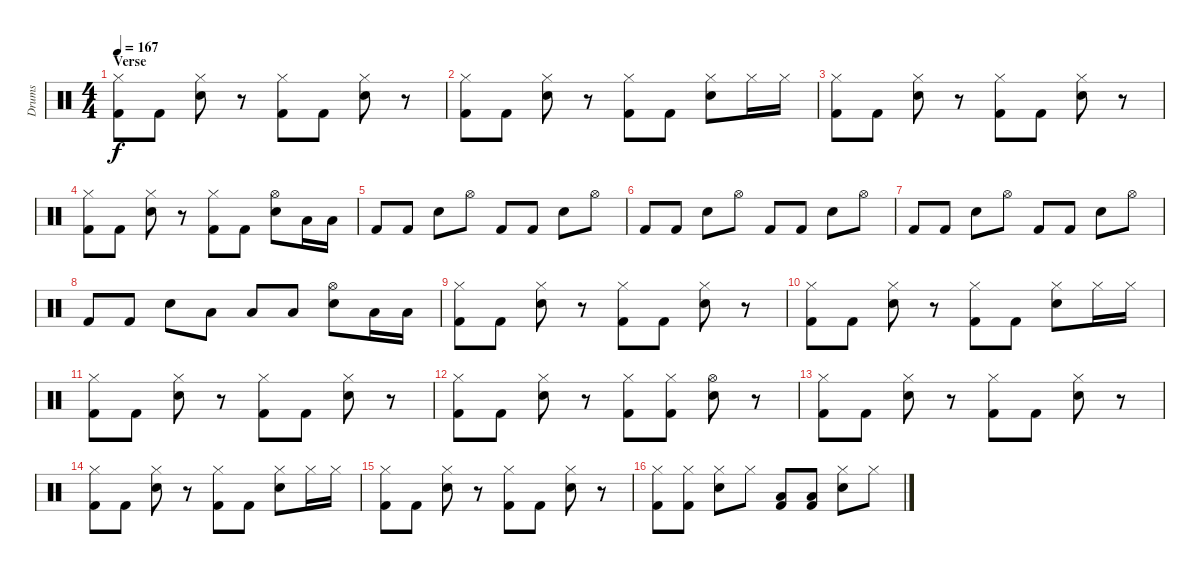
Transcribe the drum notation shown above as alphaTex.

\track ("Drums" "Drums") {instrument percussion}
\staff {score}
\articulation defaults
\ts (4 4)
\section ("" "Verse")
\tempo 167
\clef neutral
\ks c
("Hi-Hat (closed)" "Kick (hit) 2").8{dy f} "Kick (hit) 2".8 ("Hi-Hat (closed)" "Electric Snare (hit)").8 r.8 ("Hi-Hat (closed)" "Kick (hit) 2").8 "Kick (hit) 2".8 ("Hi-Hat (closed)" "Electric Snare (hit)").8 r.8 |
("Hi-Hat (closed)" "Kick (hit) 2").8 "Kick (hit) 2".8 ("Hi-Hat (closed)" "Electric Snare (hit)").8 r.8 ("Hi-Hat (closed)" "Kick (hit) 2").8 "Kick (hit) 2".8 ("Hi-Hat (closed)" "Electric Snare (hit)").8 "Hi-Hat (closed)".16 "Hi-Hat (closed)".16 |
("Hi-Hat (closed)" "Kick (hit) 2").8 "Kick (hit) 2".8 ("Hi-Hat (closed)" "Electric Snare (hit)").8 r.8 ("Hi-Hat (closed)" "Kick (hit) 2").8 "Kick (hit) 2".8 ("Hi-Hat (closed)" "Electric Snare (hit)").8 r.8 |
("Hi-Hat (closed)" "Kick (hit) 2").8 "Kick (hit) 2".8 ("Hi-Hat (closed)" "Electric Snare (hit)").8 r.8 ("Hi-Hat (closed)" "Kick (hit) 2").8 "Kick (hit) 2".8 ("Hi-Hat (open)" "Electric Snare (hit)").8 "Low Tom (hit)".16 "Low Tom (hit)".16 |
"Kick (hit) 2".8 "Kick (hit) 2".8 "Electric Snare (hit)".8 "Hi-Hat (open)".8 "Kick (hit) 2".8 "Kick (hit) 2".8 "Electric Snare (hit)".8 "Hi-Hat (open)".8 |
"Kick (hit) 2".8 "Kick (hit) 2".8 "Electric Snare (hit)".8 "Hi-Hat (open)".8 "Kick (hit) 2".8 "Kick (hit) 2".8 "Electric Snare (hit)".8 "Hi-Hat (open)".8 |
"Kick (hit) 2".8 "Kick (hit) 2".8 "Electric Snare (hit)".8 "Hi-Hat (open)".8 "Kick (hit) 2".8 "Kick (hit) 2".8 "Electric Snare (hit)".8 "Hi-Hat (open)".8 |
"Kick (hit) 2".8 "Kick (hit) 2".8 "Electric Snare (hit)".8 "Low Tom (hit)".8 "Low Tom (hit)".8 "Low Tom (hit)".8 ("Hi-Hat (open)" "Electric Snare (hit)").8 "Low Tom (hit)".16 "Low Tom (hit)".16 |
("Hi-Hat (closed)" "Kick (hit) 2").8 "Kick (hit) 2".8 ("Hi-Hat (closed)" "Electric Snare (hit)").8 r.8 ("Hi-Hat (closed)" "Kick (hit) 2").8 "Kick (hit) 2".8 ("Hi-Hat (closed)" "Electric Snare (hit)").8 r.8 |
("Hi-Hat (closed)" "Kick (hit) 2").8 "Kick (hit) 2".8 ("Hi-Hat (closed)" "Electric Snare (hit)").8 r.8 ("Hi-Hat (closed)" "Kick (hit) 2").8 "Kick (hit) 2".8 ("Hi-Hat (closed)" "Electric Snare (hit)").8 "Hi-Hat (closed)".16 "Hi-Hat (closed)".16 |
("Hi-Hat (closed)" "Kick (hit) 2").8 "Kick (hit) 2".8 ("Hi-Hat (closed)" "Electric Snare (hit)").8 r.8 ("Hi-Hat (closed)" "Kick (hit) 2").8 "Kick (hit) 2".8 ("Hi-Hat (closed)" "Electric Snare (hit)").8 r.8 |
("Hi-Hat (closed)" "Kick (hit) 2").8 "Kick (hit) 2".8 ("Hi-Hat (closed)" "Electric Snare (hit)").8 r.8 ("Hi-Hat (closed)" "Kick (hit) 2").8 ("Hi-Hat (closed)" "Kick (hit) 2").8 ("Hi-Hat (open)" "Electric Snare (hit)").8 r.8 |
("Hi-Hat (closed)" "Kick (hit) 2").8 "Kick (hit) 2".8 ("Hi-Hat (closed)" "Electric Snare (hit)").8 r.8 ("Hi-Hat (closed)" "Kick (hit) 2").8 "Kick (hit) 2".8 ("Hi-Hat (closed)" "Electric Snare (hit)").8 r.8 |
("Hi-Hat (closed)" "Kick (hit) 2").8 "Kick (hit) 2".8 ("Hi-Hat (closed)" "Electric Snare (hit)").8 r.8 ("Hi-Hat (closed)" "Kick (hit) 2").8 "Kick (hit) 2".8 ("Hi-Hat (closed)" "Electric Snare (hit)").8 "Hi-Hat (closed)".16 "Hi-Hat (closed)".16 |
("Hi-Hat (closed)" "Kick (hit) 2").8 "Kick (hit) 2".8 ("Hi-Hat (closed)" "Electric Snare (hit)").8 r.8 ("Hi-Hat (closed)" "Kick (hit) 2").8 "Kick (hit) 2".8 ("Hi-Hat (closed)" "Electric Snare (hit)").8 r.8 |
("Hi-Hat (closed)" "Kick (hit) 2").8 ("Hi-Hat (closed)" "Kick (hit) 2").8 ("Hi-Hat (closed)" "Electric Snare (hit)").8 "Hi-Hat (closed)".8 ("Low Tom (hit)" "Kick (hit) 2").8 ("Low Tom (hit)" "Kick (hit) 2").8 ("Hi-Hat (closed)" "Electric Snare (hit)").8 "Hi-Hat (closed)".8
